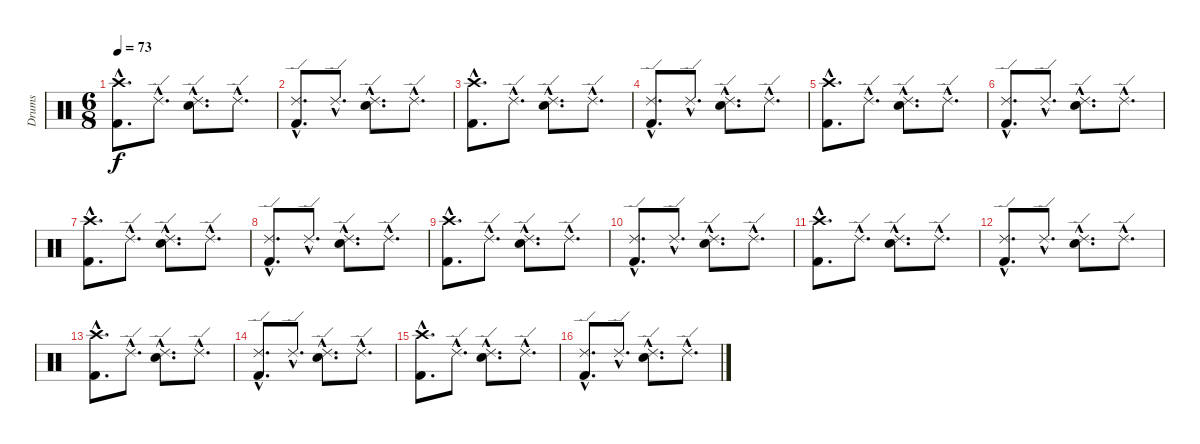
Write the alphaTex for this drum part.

\track ("Drums" "Drums") {instrument percussion}
\staff {score}
\articulation defaults
\ts (6 8)
\tempo 73
\clef neutral
\ks c
("Crash high (hit)"{hac} "Kick (hit) 2"{hac}).8{d dy f} "Ride (edge) 2"{hac}.8{d} ("Ride (edge) 2"{hac} "Electric Snare (hit)"{hac}).8{d} "Ride (edge) 2"{hac}.8{d} |
("Ride (edge) 2"{hac} "Kick (hit) 2"{hac}).8{d} "Ride (edge) 2"{hac}.8{d} ("Ride (edge) 2"{hac} "Electric Snare (hit)"{hac}).8{d} "Ride (edge) 2"{hac}.8{d} |
("Crash high (hit)"{hac} "Kick (hit) 2"{hac}).8{d} "Ride (edge) 2"{hac}.8{d} ("Ride (edge) 2"{hac} "Electric Snare (hit)"{hac}).8{d} "Ride (edge) 2"{hac}.8{d} |
("Ride (edge) 2"{hac} "Kick (hit) 2"{hac}).8{d} "Ride (edge) 2"{hac}.8{d} ("Ride (edge) 2"{hac} "Electric Snare (hit)"{hac}).8{d} "Ride (edge) 2"{hac}.8{d} |
("Crash high (hit)"{hac} "Kick (hit) 2"{hac}).8{d} "Ride (edge) 2"{hac}.8{d} ("Ride (edge) 2"{hac} "Electric Snare (hit)"{hac}).8{d} "Ride (edge) 2"{hac}.8{d} |
("Ride (edge) 2"{hac} "Kick (hit) 2"{hac}).8{d} "Ride (edge) 2"{hac}.8{d} ("Ride (edge) 2"{hac} "Electric Snare (hit)"{hac}).8{d} "Ride (edge) 2"{hac}.8{d} |
("Crash high (hit)"{hac} "Kick (hit) 2"{hac}).8{d} "Ride (edge) 2"{hac}.8{d} ("Ride (edge) 2"{hac} "Electric Snare (hit)"{hac}).8{d} "Ride (edge) 2"{hac}.8{d} |
("Ride (edge) 2"{hac} "Kick (hit) 2"{hac}).8{d} "Ride (edge) 2"{hac}.8{d} ("Ride (edge) 2"{hac} "Electric Snare (hit)"{hac}).8{d} "Ride (edge) 2"{hac}.8{d} |
("Crash high (hit)"{hac} "Kick (hit) 2"{hac}).8{d} "Ride (edge) 2"{hac}.8{d} ("Ride (edge) 2"{hac} "Electric Snare (hit)"{hac}).8{d} "Ride (edge) 2"{hac}.8{d} |
("Ride (edge) 2"{hac} "Kick (hit) 2"{hac}).8{d} "Ride (edge) 2"{hac}.8{d} ("Ride (edge) 2"{hac} "Electric Snare (hit)"{hac}).8{d} "Ride (edge) 2"{hac}.8{d} |
("Crash high (hit)"{hac} "Kick (hit) 2"{hac}).8{d} "Ride (edge) 2"{hac}.8{d} ("Ride (edge) 2"{hac} "Electric Snare (hit)"{hac}).8{d} "Ride (edge) 2"{hac}.8{d} |
("Ride (edge) 2"{hac} "Kick (hit) 2"{hac}).8{d} "Ride (edge) 2"{hac}.8{d} ("Ride (edge) 2"{hac} "Electric Snare (hit)"{hac}).8{d} "Ride (edge) 2"{hac}.8{d} |
("Crash high (hit)"{hac} "Kick (hit) 2"{hac}).8{d} "Ride (edge) 2"{hac}.8{d} ("Ride (edge) 2"{hac} "Electric Snare (hit)"{hac}).8{d} "Ride (edge) 2"{hac}.8{d} |
("Ride (edge) 2"{hac} "Kick (hit) 2"{hac}).8{d} "Ride (edge) 2"{hac}.8{d} ("Ride (edge) 2"{hac} "Electric Snare (hit)"{hac}).8{d} "Ride (edge) 2"{hac}.8{d} |
("Crash high (hit)"{hac} "Kick (hit) 2"{hac}).8{d} "Ride (edge) 2"{hac}.8{d} ("Ride (edge) 2"{hac} "Electric Snare (hit)"{hac}).8{d} "Ride (edge) 2"{hac}.8{d} |
("Ride (edge) 2"{hac} "Kick (hit) 2"{hac}).8{d} "Ride (edge) 2"{hac}.8{d} ("Ride (edge) 2"{hac} "Electric Snare (hit)"{hac}).8{d} "Ride (edge) 2"{hac}.8{d}
